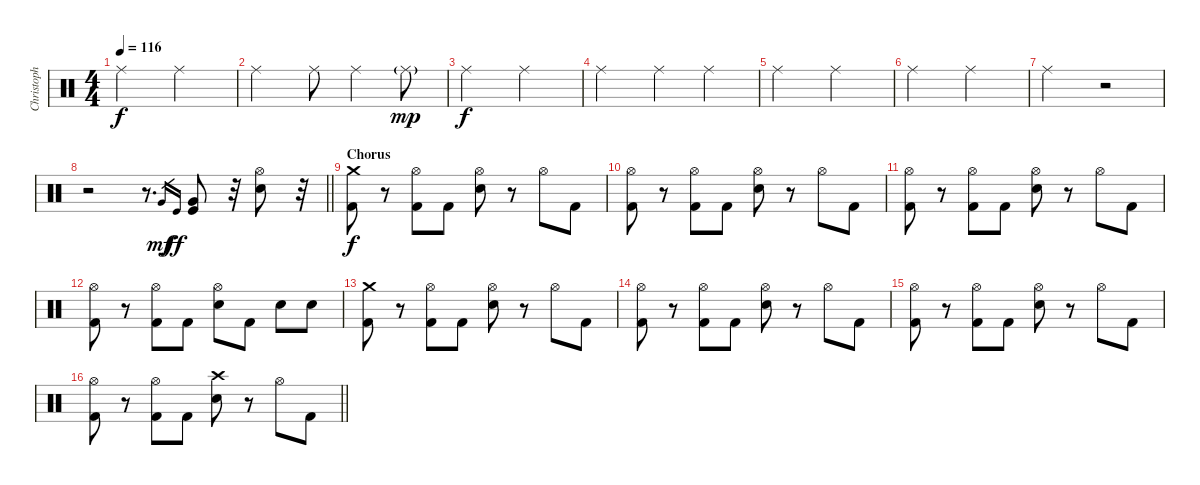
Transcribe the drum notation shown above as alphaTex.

\track ("Christoph Schneider" "Christoph ") {instrument percussion}
\staff {score}
\articulation defaults
\ts (4 4)
\tempo 116
\clef neutral
\ks c "Ride (middle)".2{dy f} "Ride (middle)".2
|
"Ride (middle)".2 "Ride (middle)".8 "Ride (middle)".4 "Ride (middle)"{g}.8{dy mp} |
"Ride (middle)".2{dy f} "Ride (middle)".2 |
"Ride (middle)".2 "Ride (middle)".4 "Ride (middle)".4 |
"Ride (middle)".2 "Ride (middle)".2 |
"Ride (middle)".2 "Ride (middle)".2 |
"Ride (middle)".2 r.2 |
\barLineRight lightlight
r.2 r.8{d} "Very Low Tom (hit)".16{gr dy mf} "Kick (hit)".16{gr dy ff} ("Very Low Tom (hit)" "Kick (hit)").8 r.32 ("Hi-Hat (open)" "Electric Snare (hit)").8 r.32 |
\section ("" "Chorus")
("Crash medium (hit)" "Kick (hit) 2").8{dy f} r.8 ("Hi-Hat (open)" "Kick (hit) 2").8 "Kick (hit) 2".8 ("Hi-Hat (open)" "Snare (hit) 2").8 r.8 "Hi-Hat (open)".8 "Kick (hit) 2".8 |
("Hi-Hat (open)" "Kick (hit) 2").8 r.8 ("Hi-Hat (open)" "Kick (hit) 2").8 "Kick (hit) 2".8 ("Hi-Hat (open)" "Snare (hit) 2").8 r.8 "Hi-Hat (open)".8 "Kick (hit) 2".8 |
("Hi-Hat (open)" "Kick (hit) 2").8 r.8 ("Hi-Hat (open)" "Kick (hit) 2").8 "Kick (hit) 2".8 ("Hi-Hat (open)" "Snare (hit) 2").8 r.8 "Hi-Hat (open)".8 "Kick (hit) 2".8 |
("Hi-Hat (open)" "Kick (hit) 2").8 r.8 ("Hi-Hat (open)" "Kick (hit) 2").8 "Kick (hit) 2".8 ("Hi-Hat (open)" "Snare (hit) 2").8 "Kick (hit) 2".8 "Snare (hit) 2".8 "Snare (hit) 2".8 |
("Crash medium (hit)" "Kick (hit) 2").8 r.8 ("Hi-Hat (open)" "Kick (hit) 2").8 "Kick (hit) 2".8 ("Hi-Hat (open)" "Snare (hit) 2").8 r.8 "Hi-Hat (open)".8 "Kick (hit) 2".8 |
("Hi-Hat (open)" "Kick (hit) 2").8 r.8 ("Hi-Hat (open)" "Kick (hit) 2").8 "Kick (hit) 2".8 ("Hi-Hat (open)" "Snare (hit) 2").8 r.8 "Hi-Hat (open)".8 "Kick (hit) 2".8 |
("Hi-Hat (open)" "Kick (hit) 2").8 r.8 ("Hi-Hat (open)" "Kick (hit) 2").8 "Kick (hit) 2".8 ("Hi-Hat (open)" "Snare (hit) 2").8 r.8 "Hi-Hat (open)".8 "Kick (hit) 2".8 |
\barLineRight lightlight
("Hi-Hat (open)" "Kick (hit) 2").8 r.8 ("Hi-Hat (open)" "Kick (hit) 2").8 "Kick (hit) 2".8 ("Crash high (hit)" "Snare (hit) 2").8 r.8 "Hi-Hat (open)".8 "Kick (hit) 2".8
